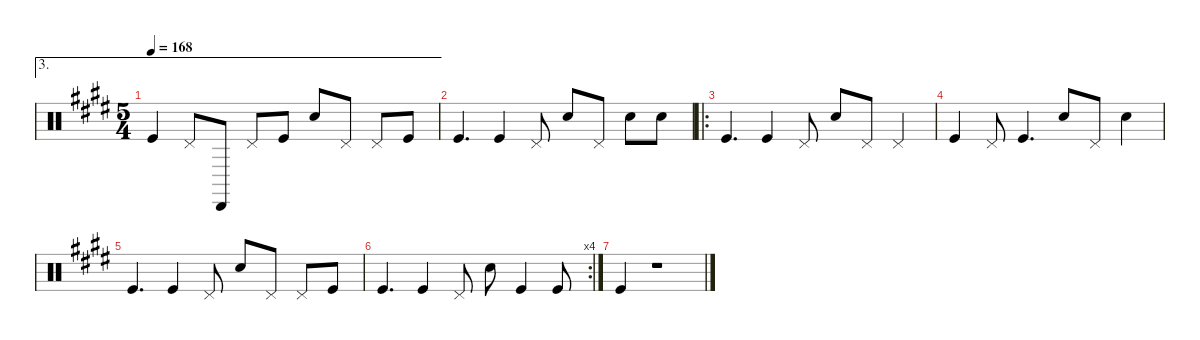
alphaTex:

\defaultSystemsLayout 4
\hideDynamics
\bracketExtendMode nobrackets
\singleTrackTrackNamePolicy hidden
\multiTrackTrackNamePolicy hidden
\firstSystemTrackNameMode fullname
\firstSystemTrackNameOrientation horizontal
\otherSystemsTrackNameOrientation horizontal
\track ("Percussion" "drm.") {instrument percussion}
\staff {score}
\articulation defaults
\ae 3
\ts (5 4)
\tempo 168
\clef neutral
\ks c#minor "Kick (hit)"{acc forcenatural}.4{dy f} "Pedal Hi-Hat (hit)"{acc forcenatural}.8 "Cabasa (hit)"{acc forcenatural}.8 "Pedal Hi-Hat (hit)"{acc forcenatural}.8 "Kick (hit)"{acc forcenatural}.8 "Snare (hit) 2"{acc forcenatural}.8 "Pedal Hi-Hat (hit)"{acc forcenatural}.8 "Pedal Hi-Hat (hit)"{acc forcenatural}.8 "Kick (hit)"{acc forcenatural}.8
|
"Kick (hit)"{acc forcenatural}.4{d} "Kick (hit)"{acc forcenatural}.4 "Pedal Hi-Hat (hit)"{acc forcenatural}.8 "Snare (hit) 2"{acc forcenatural}.8 "Pedal Hi-Hat (hit)"{acc forcenatural}.8 "Snare (hit) 2"{acc forcenatural}.8 "Snare (hit) 2"{acc forcenatural}.8 |
\ro "Kick (hit)"{acc forcenatural}.4{d} "Kick (hit)"{acc forcenatural}.4 "Pedal Hi-Hat (hit)"{acc forcenatural}.8 "Snare (hit) 2"{acc forcenatural}.8 "Pedal Hi-Hat (hit)"{acc forcenatural}.8 "Pedal Hi-Hat (hit)"{acc forcenatural}.4
|
"Kick (hit)"{acc forcenatural}.4 "Pedal Hi-Hat (hit)"{acc forcenatural}.8 "Kick (hit)"{acc forcenatural}.4{d} "Snare (hit) 2"{acc forcenatural}.8 "Pedal Hi-Hat (hit)"{acc forcenatural}.8 "Snare (hit) 2"{acc forcenatural}.4 |
"Kick (hit)"{acc forcenatural}.4{d} "Kick (hit)"{acc forcenatural}.4 "Pedal Hi-Hat (hit)"{acc forcenatural}.8 "Snare (hit) 2"{acc forcenatural}.8 "Pedal Hi-Hat (hit)"{acc forcenatural}.8 "Pedal Hi-Hat (hit)"{acc forcenatural}.8 "Kick (hit)"{acc forcenatural}.8 |
\rc 4 "Kick (hit)"{acc forcenatural}.4{d} "Kick (hit)"{acc forcenatural}.4 "Pedal Hi-Hat (hit)"{acc forcenatural}.8 "Snare (hit) 2"{acc forcenatural}.8 "Kick (hit)"{acc forcenatural}.4 "Kick (hit)"{acc forcenatural}.8
|
"Kick (hit)"{acc forcenatural}.4 r.1
